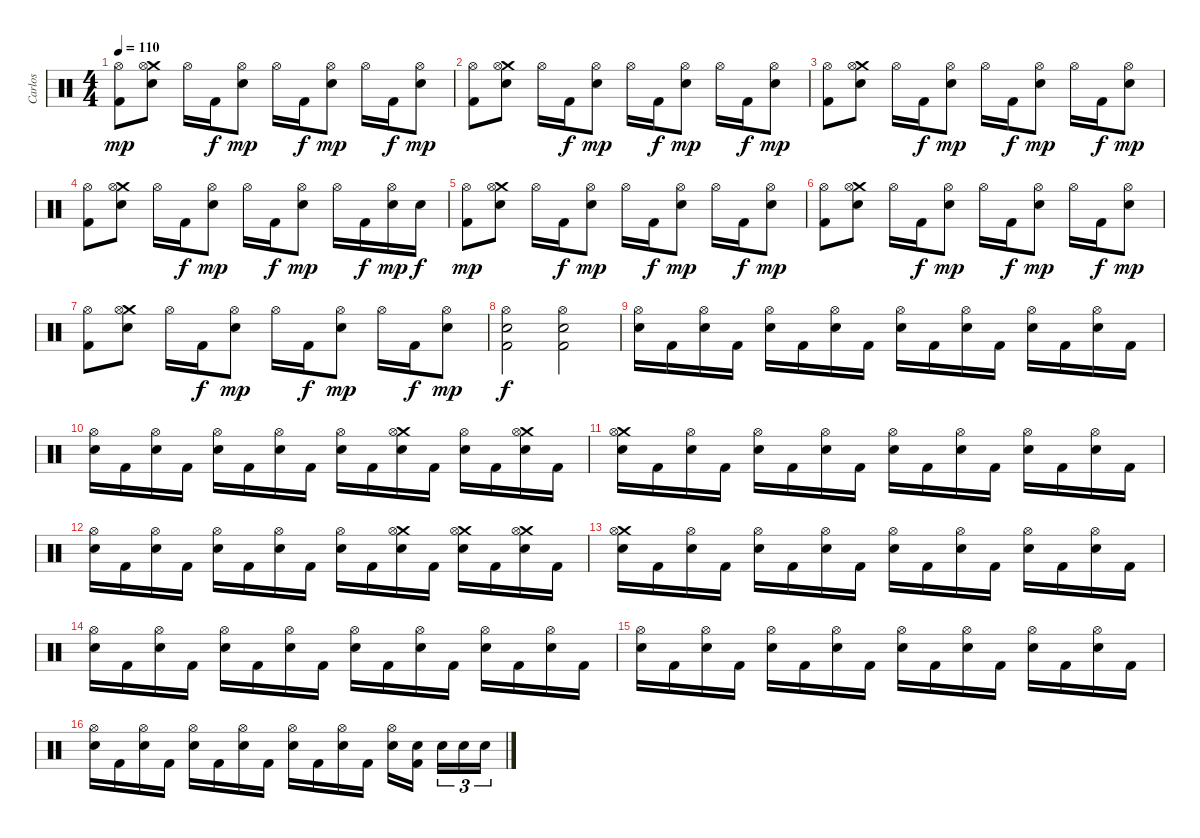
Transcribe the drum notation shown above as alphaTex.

\track ("Carlos" "Carlos") {instrument percussion}
\staff {score}
\articulation defaults
\ts (4 4)
\tempo 110
\clef neutral
\ks c
("Hi-Hat (open)" "Kick (hit) 2").8{dy mp} ("Crash medium (hit)" "Hi-Hat (open)" "Electric Snare (hit)").8 "Hi-Hat (open)".16 "Kick (hit) 2".16{dy f} ("Hi-Hat (open)" "Electric Snare (hit)").8{dy mp} "Hi-Hat (open)".16 "Kick (hit) 2".16{dy f} ("Hi-Hat (open)" "Electric Snare (hit)").8{dy mp} "Hi-Hat (open)".16 "Kick (hit) 2".16{dy f} ("Hi-Hat (open)" "Electric Snare (hit)").8{dy mp} |
("Hi-Hat (open)" "Kick (hit) 2").8 ("Crash medium (hit)" "Hi-Hat (open)" "Electric Snare (hit)").8 "Hi-Hat (open)".16 "Kick (hit) 2".16{dy f} ("Hi-Hat (open)" "Electric Snare (hit)").8{dy mp} "Hi-Hat (open)".16 "Kick (hit) 2".16{dy f} ("Hi-Hat (open)" "Electric Snare (hit)").8{dy mp} "Hi-Hat (open)".16 "Kick (hit) 2".16{dy f} ("Hi-Hat (open)" "Electric Snare (hit)").8{dy mp} |
("Hi-Hat (open)" "Kick (hit) 2").8 ("Crash medium (hit)" "Hi-Hat (open)" "Electric Snare (hit)").8 "Hi-Hat (open)".16 "Kick (hit) 2".16{dy f} ("Hi-Hat (open)" "Electric Snare (hit)").8{dy mp} "Hi-Hat (open)".16 "Kick (hit) 2".16{dy f} ("Hi-Hat (open)" "Electric Snare (hit)").8{dy mp} "Hi-Hat (open)".16 "Kick (hit) 2".16{dy f} ("Hi-Hat (open)" "Electric Snare (hit)").8{dy mp} |
("Hi-Hat (open)" "Kick (hit) 2").8 ("Crash medium (hit)" "Hi-Hat (open)" "Electric Snare (hit)").8 "Hi-Hat (open)".16 "Kick (hit) 2".16{dy f} ("Hi-Hat (open)" "Electric Snare (hit)").8{dy mp} "Hi-Hat (open)".16 "Kick (hit) 2".16{dy f} ("Hi-Hat (open)" "Electric Snare (hit)").8{dy mp} "Hi-Hat (open)".16 "Kick (hit) 2".16{dy f} ("Hi-Hat (open)" "Electric Snare (hit)").16{dy mp} "Electric Snare (hit)".16{dy f} |
("Hi-Hat (open)" "Kick (hit) 2").8{dy mp} ("Crash medium (hit)" "Hi-Hat (open)" "Electric Snare (hit)").8 "Hi-Hat (open)".16 "Kick (hit) 2".16{dy f} ("Hi-Hat (open)" "Electric Snare (hit)").8{dy mp} "Hi-Hat (open)".16 "Kick (hit) 2".16{dy f} ("Hi-Hat (open)" "Electric Snare (hit)").8{dy mp} "Hi-Hat (open)".16 "Kick (hit) 2".16{dy f} ("Hi-Hat (open)" "Electric Snare (hit)").8{dy mp} |
("Hi-Hat (open)" "Kick (hit) 2").8 ("Crash medium (hit)" "Hi-Hat (open)" "Electric Snare (hit)").8 "Hi-Hat (open)".16 "Kick (hit) 2".16{dy f} ("Hi-Hat (open)" "Electric Snare (hit)").8{dy mp} "Hi-Hat (open)".16 "Kick (hit) 2".16{dy f} ("Hi-Hat (open)" "Electric Snare (hit)").8{dy mp} "Hi-Hat (open)".16 "Kick (hit) 2".16{dy f} ("Hi-Hat (open)" "Electric Snare (hit)").8{dy mp} |
("Hi-Hat (open)" "Kick (hit) 2").8 ("Crash medium (hit)" "Hi-Hat (open)" "Electric Snare (hit)").8 "Hi-Hat (open)".16 "Kick (hit) 2".16{dy f} ("Hi-Hat (open)" "Electric Snare (hit)").8{dy mp} "Hi-Hat (open)".16 "Kick (hit) 2".16{dy f} ("Hi-Hat (open)" "Electric Snare (hit)").8{dy mp} "Hi-Hat (open)".16 "Kick (hit) 2".16{dy f} ("Hi-Hat (open)" "Electric Snare (hit)").8{dy mp} |
("Hi-Hat (open)" "Electric Snare (hit)" "Kick (hit) 2").2{dy f} ("Hi-Hat (open)" "Electric Snare (hit)" "Kick (hit) 2").2 |
("Hi-Hat (open)" "Electric Snare (hit)").16 "Kick (hit) 2".16 ("Hi-Hat (open)" "Electric Snare (hit)").16 "Kick (hit) 2".16 ("Hi-Hat (open)" "Electric Snare (hit)").16 "Kick (hit) 2".16 ("Hi-Hat (open)" "Electric Snare (hit)").16 "Kick (hit) 2".16 ("Hi-Hat (open)" "Electric Snare (hit)").16 "Kick (hit) 2".16 ("Hi-Hat (open)" "Electric Snare (hit)").16 "Kick (hit) 2".16 ("Hi-Hat (open)" "Electric Snare (hit)").16 "Kick (hit) 2".16 ("Hi-Hat (open)" "Electric Snare (hit)").16 "Kick (hit) 2".16 |
("Hi-Hat (open)" "Electric Snare (hit)").16 "Kick (hit) 2".16 ("Hi-Hat (open)" "Electric Snare (hit)").16 "Kick (hit) 2".16 ("Hi-Hat (open)" "Electric Snare (hit)").16 "Kick (hit) 2".16 ("Hi-Hat (open)" "Electric Snare (hit)").16 "Kick (hit) 2".16 ("Hi-Hat (open)" "Electric Snare (hit)").16 "Kick (hit) 2".16 ("Crash medium (hit)" "Hi-Hat (open)" "Electric Snare (hit)").16 "Kick (hit) 2".16 ("Hi-Hat (open)" "Electric Snare (hit)").16 "Kick (hit) 2".16 ("Crash medium (hit)" "Hi-Hat (open)" "Electric Snare (hit)").16 "Kick (hit) 2".16 |
("Crash medium (hit)" "Hi-Hat (open)" "Electric Snare (hit)").16 "Kick (hit) 2".16 ("Hi-Hat (open)" "Electric Snare (hit)").16 "Kick (hit) 2".16 ("Hi-Hat (open)" "Electric Snare (hit)").16 "Kick (hit) 2".16 ("Hi-Hat (open)" "Electric Snare (hit)").16 "Kick (hit) 2".16 ("Hi-Hat (open)" "Electric Snare (hit)").16 "Kick (hit) 2".16 ("Hi-Hat (open)" "Electric Snare (hit)").16 "Kick (hit) 2".16 ("Hi-Hat (open)" "Electric Snare (hit)").16 "Kick (hit) 2".16 ("Hi-Hat (open)" "Electric Snare (hit)").16 "Kick (hit) 2".16 |
("Hi-Hat (open)" "Electric Snare (hit)").16 "Kick (hit) 2".16 ("Hi-Hat (open)" "Electric Snare (hit)").16 "Kick (hit) 2".16 ("Hi-Hat (open)" "Electric Snare (hit)").16 "Kick (hit) 2".16 ("Hi-Hat (open)" "Electric Snare (hit)").16 "Kick (hit) 2".16 ("Hi-Hat (open)" "Electric Snare (hit)").16 "Kick (hit) 2".16 ("Crash medium (hit)" "Hi-Hat (open)" "Electric Snare (hit)").16 "Kick (hit) 2".16 ("Crash medium (hit)" "Hi-Hat (open)" "Electric Snare (hit)").16 "Kick (hit) 2".16 ("Crash medium (hit)" "Hi-Hat (open)" "Electric Snare (hit)").16 "Kick (hit) 2".16 |
("Crash medium (hit)" "Hi-Hat (open)" "Electric Snare (hit)").16 "Kick (hit) 2".16 ("Hi-Hat (open)" "Electric Snare (hit)").16 "Kick (hit) 2".16 ("Hi-Hat (open)" "Electric Snare (hit)").16 "Kick (hit) 2".16 ("Hi-Hat (open)" "Electric Snare (hit)").16 "Kick (hit) 2".16 ("Hi-Hat (open)" "Electric Snare (hit)").16 "Kick (hit) 2".16 ("Hi-Hat (open)" "Electric Snare (hit)").16 "Kick (hit) 2".16 ("Hi-Hat (open)" "Electric Snare (hit)").16 "Kick (hit) 2".16 ("Hi-Hat (open)" "Electric Snare (hit)").16 "Kick (hit) 2".16 |
("Hi-Hat (open)" "Electric Snare (hit)").16 "Kick (hit) 2".16 ("Hi-Hat (open)" "Electric Snare (hit)").16 "Kick (hit) 2".16 ("Hi-Hat (open)" "Electric Snare (hit)").16 "Kick (hit) 2".16 ("Hi-Hat (open)" "Electric Snare (hit)").16 "Kick (hit) 2".16 ("Hi-Hat (open)" "Electric Snare (hit)").16 "Kick (hit) 2".16 ("Hi-Hat (open)" "Electric Snare (hit)").16 "Kick (hit) 2".16 ("Hi-Hat (open)" "Electric Snare (hit)").16 "Kick (hit) 2".16 ("Hi-Hat (open)" "Electric Snare (hit)").16 "Kick (hit) 2".16 |
("Hi-Hat (open)" "Electric Snare (hit)").16 "Kick (hit) 2".16 ("Hi-Hat (open)" "Electric Snare (hit)").16 "Kick (hit) 2".16 ("Hi-Hat (open)" "Electric Snare (hit)").16 "Kick (hit) 2".16 ("Hi-Hat (open)" "Electric Snare (hit)").16 "Kick (hit) 2".16 ("Hi-Hat (open)" "Electric Snare (hit)").16 "Kick (hit) 2".16 ("Hi-Hat (open)" "Electric Snare (hit)").16 "Kick (hit) 2".16 ("Hi-Hat (open)" "Electric Snare (hit)").16 "Kick (hit) 2".16 ("Hi-Hat (open)" "Electric Snare (hit)").16 "Kick (hit) 2".16 |
("Hi-Hat (open)" "Electric Snare (hit)").16 "Kick (hit) 2".16 ("Hi-Hat (open)" "Electric Snare (hit)").16 "Kick (hit) 2".16 ("Hi-Hat (open)" "Electric Snare (hit)").16 "Kick (hit) 2".16 ("Hi-Hat (open)" "Electric Snare (hit)").16 "Kick (hit) 2".16 ("Hi-Hat (open)" "Electric Snare (hit)").16 "Kick (hit) 2".16 ("Hi-Hat (open)" "Electric Snare (hit)").16 "Kick (hit) 2".16 ("Hi-Hat (open)" "Electric Snare (hit)").16 ("Electric Snare (hit)" "Kick (hit) 2").16 "Electric Snare (hit)".16{tu (3 2)} "Electric Snare (hit)".16{tu (3 2)} "Electric Snare (hit)".16{tu (3 2)}
